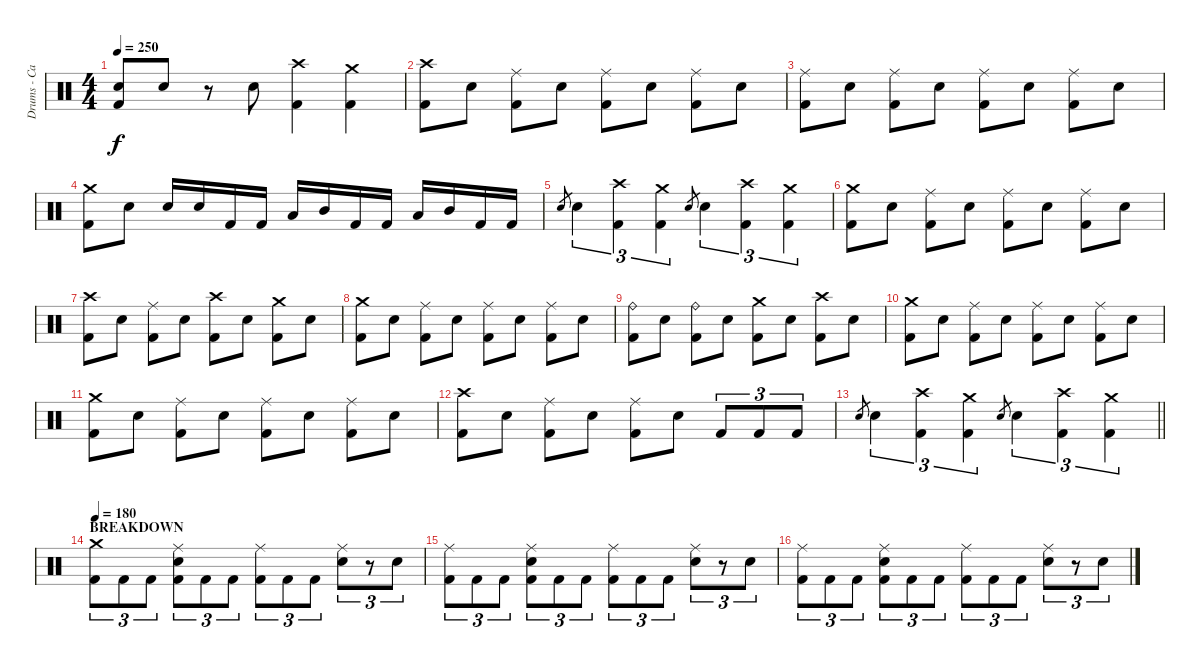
\track ("Drums - Carlos Cruz" "Drums - Ca") {instrument percussion}
\staff {score}
\articulation defaults
\ts (4 4)
\tempo 250
\clef neutral
\ks c
("Snare (hit) 2" "Kick (hit) 2").8{dy f} "Snare (hit) 2".8 r.8 "Snare (hit) 2".8 ("Crash high (hit)" "Kick (hit) 2").4 ("Crash medium (hit)" "Kick (hit) 2").4 |
("Crash high (hit)" "Kick (hit) 2").8 "Snare (hit) 2".8 ("Ride (middle)" "Kick (hit) 2").8 "Snare (hit) 2".8 ("Ride (middle)" "Kick (hit) 2").8 "Snare (hit) 2".8 ("Ride (middle)" "Kick (hit) 2").8 "Snare (hit) 2".8 |
("Ride (middle)" "Kick (hit) 2").8 "Snare (hit) 2".8 ("Ride (middle)" "Kick (hit) 2").8 "Snare (hit) 2".8 ("Ride (middle)" "Kick (hit) 2").8 "Snare (hit) 2".8 ("Ride (middle)" "Kick (hit) 2").8 "Snare (hit) 2".8 |
("Crash medium (hit)" "Kick (hit) 2").8 "Snare (hit) 2".8 "Snare (hit) 2".16 "Snare (hit) 2".16 "Kick (hit) 2".16 "Kick (hit) 2".16 "Low Tom (hit)".16 "Mid Tom (hit)".16 "Kick (hit) 2".16 "Kick (hit) 2".16 "Low Tom (hit)".16 "Mid Tom (hit)".16 "Kick (hit) 2".16 "Kick (hit) 2".16 |
"Snare (hit) 2".8{gr} "Snare (hit) 2".4{tu (3 2)} ("Crash high (hit)" "Kick (hit) 2").4{tu (3 2)} ("Crash medium (hit)" "Kick (hit) 2").4{tu (3 2)} "Snare (hit) 2".8{gr} "Snare (hit) 2".4{tu (3 2)} ("Crash high (hit)" "Kick (hit) 2").4{tu (3 2)} ("Crash medium (hit)" "Kick (hit) 2").4{tu (3 2)} |
("Crash medium (hit)" "Kick (hit) 2").8 "Snare (hit) 2".8 ("Ride (middle)" "Kick (hit) 2").8 "Snare (hit) 2".8 ("Ride (middle)" "Kick (hit) 2").8 "Snare (hit) 2".8 ("Ride (middle)" "Kick (hit) 2").8 "Snare (hit) 2".8 |
("Crash high (hit)" "Kick (hit) 2").8 "Snare (hit) 2".8 ("Ride (middle)" "Kick (hit) 2").8 "Snare (hit) 2".8 ("Crash high (hit)" "Kick (hit) 2").8 "Snare (hit) 2".8 ("Crash medium (hit)" "Kick (hit) 2").8 "Snare (hit) 2".8 |
("Crash medium (hit)" "Kick (hit) 2").8 "Snare (hit) 2".8 ("Ride (middle)" "Kick (hit) 2").8 "Snare (hit) 2".8 ("Ride (middle)" "Kick (hit) 2").8 "Snare (hit) 2".8 ("Ride (middle)" "Kick (hit) 2").8 "Snare (hit) 2".8 |
("Ride (bell)" "Kick (hit) 2").8 "Snare (hit) 2".8 ("Ride (bell)" "Kick (hit) 2").8 "Snare (hit) 2".8 ("Crash medium (hit)" "Kick (hit) 2").8 "Snare (hit) 2".8 ("Crash high (hit)" "Kick (hit) 2").8 "Snare (hit) 2".8 |
("Crash medium (hit)" "Kick (hit) 2").8 "Snare (hit) 2".8 ("Ride (middle)" "Kick (hit) 2").8 "Snare (hit) 2".8 ("Ride (middle)" "Kick (hit) 2").8 "Snare (hit) 2".8 ("Ride (middle)" "Kick (hit) 2").8 "Snare (hit) 2".8 |
("Crash medium (hit)" "Kick (hit) 2").8 "Snare (hit) 2".8 ("Ride (middle)" "Kick (hit) 2").8 "Snare (hit) 2".8 ("Ride (middle)" "Kick (hit) 2").8 "Snare (hit) 2".8 ("Ride (middle)" "Kick (hit) 2").8 "Snare (hit) 2".8 |
("Crash high (hit)" "Kick (hit) 2").8 "Snare (hit) 2".8 ("Ride (middle)" "Kick (hit) 2").8 "Snare (hit) 2".8 ("Ride (middle)" "Kick (hit) 2").8 "Snare (hit) 2".8 "Kick (hit) 2".8{tu (3 2)} "Kick (hit) 2".8{tu (3 2)} "Kick (hit) 2".8{tu (3 2)} |
\barLineRight lightlight "Snare (hit) 2".8{gr} "Snare (hit) 2".4{tu (3 2)}
("Crash high (hit)" "Kick (hit) 2").4{tu (3 2)} ("Crash medium (hit)" "Kick (hit) 2").4{tu (3 2)} "Snare (hit) 2".8{gr} "Snare (hit) 2".4{tu (3 2)} ("Crash high (hit)" "Kick (hit) 2").4{tu (3 2)} ("Crash medium (hit)" "Kick (hit) 2").4{tu (3 2)} |
\section ("" "BREAKDOWN")
\tempo 180
("Crash medium (hit)" "Kick (hit) 2").8{tu (3 2)} "Kick (hit) 2".8{tu (3 2)} "Kick (hit) 2".8{tu (3 2)} ("Ride (middle)" "Snare (hit) 2" "Kick (hit) 2").8{tu (3 2)} "Kick (hit) 2".8{tu (3 2)} "Kick (hit) 2".8{tu (3 2)} ("Ride (middle)" "Kick (hit) 2").8{tu (3 2)} "Kick (hit) 2".8{tu (3 2)} "Kick (hit) 2".8{tu (3 2)} ("Ride (middle)" "Snare (hit) 2").8{tu (3 2)} r.8{tu (3 2)} "Snare (hit) 2".8{tu (3 2)} |
("Ride (middle)" "Kick (hit) 2").8{tu (3 2)} "Kick (hit) 2".8{tu (3 2)} "Kick (hit) 2".8{tu (3 2)} ("Ride (middle)" "Snare (hit) 2" "Kick (hit) 2").8{tu (3 2)} "Kick (hit) 2".8{tu (3 2)} "Kick (hit) 2".8{tu (3 2)} ("Ride (middle)" "Kick (hit) 2").8{tu (3 2)} "Kick (hit) 2".8{tu (3 2)} "Kick (hit) 2".8{tu (3 2)} ("Ride (middle)" "Snare (hit) 2").8{tu (3 2)} r.8{tu (3 2)} "Snare (hit) 2".8{tu (3 2)} |
("Ride (middle)" "Kick (hit) 2").8{tu (3 2)} "Kick (hit) 2".8{tu (3 2)} "Kick (hit) 2".8{tu (3 2)} ("Ride (middle)" "Snare (hit) 2" "Kick (hit) 2").8{tu (3 2)} "Kick (hit) 2".8{tu (3 2)} "Kick (hit) 2".8{tu (3 2)} ("Ride (middle)" "Kick (hit) 2").8{tu (3 2)} "Kick (hit) 2".8{tu (3 2)} "Kick (hit) 2".8{tu (3 2)} ("Ride (middle)" "Snare (hit) 2").8{tu (3 2)} r.8{tu (3 2)} "Snare (hit) 2".8{tu (3 2)}
